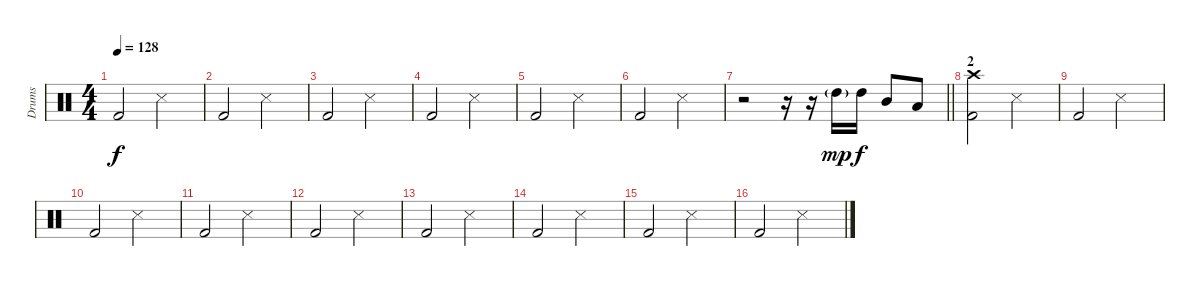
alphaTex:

\track ("Drums" "Drums") {instrument percussion}
\staff {score}
\articulation defaults
\ts (4 4)
\tempo 128
\clef neutral
\ks c "Kick (hit) 2".2{dy f} "Snare (side stick) 3".2
|
"Kick (hit) 2".2 "Snare (side stick) 3".2 |
"Kick (hit) 2".2 "Snare (side stick) 3".2 |
"Kick (hit) 2".2 "Snare (side stick) 3".2 |
"Kick (hit) 2".2 "Snare (side stick) 3".2 |
"Kick (hit) 2".2 "Snare (side stick) 3".2 |
\barLineRight lightlight
r.2 r.16 r.16 "High Tom (hit)"{g}.16{dy mp} "High Tom (hit)".16{dy f} "Mid Tom (hit)".8 "Low Tom (hit)".8 |
\section ("" "2")
("Crash high (hit)" "Kick (hit) 2").2 "Snare (side stick) 3".2 |
"Kick (hit) 2".2 "Snare (side stick) 3".2 |
"Kick (hit) 2".2 "Snare (side stick) 3".2 |
"Kick (hit) 2".2 "Snare (side stick) 3".2 |
"Kick (hit) 2".2 "Snare (side stick) 3".2 |
"Kick (hit) 2".2 "Snare (side stick) 3".2 |
"Kick (hit) 2".2 "Snare (side stick) 3".2 |
"Kick (hit) 2".2 "Snare (side stick) 3".2 |
"Kick (hit) 2".2 "Snare (side stick) 3".2
